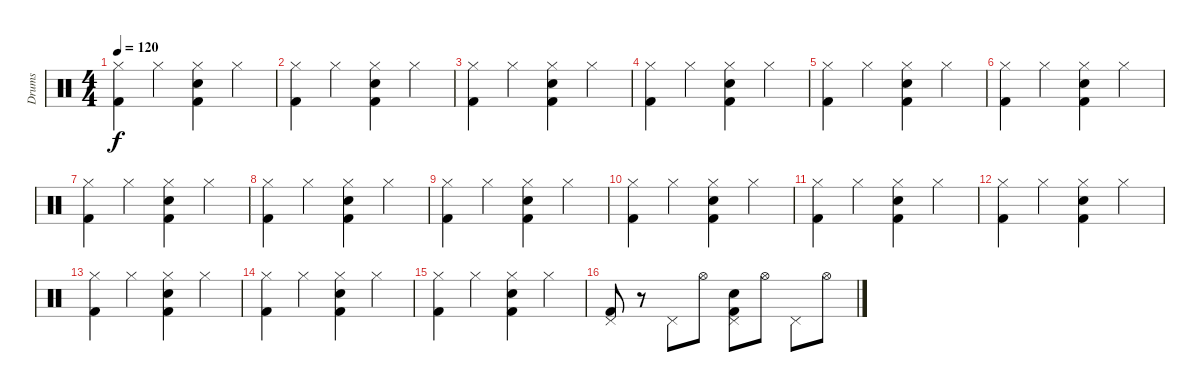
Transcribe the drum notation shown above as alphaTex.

\track ("Drums" "Drums") {instrument percussion}
\staff {score}
\articulation defaults
\ts (4 4)
\tempo 120
\clef neutral
\ks c
("Hi-Hat (closed)" "Kick (hit) 2").4{dy f} "Hi-Hat (closed)".4 ("Hi-Hat (closed)" "Electric Snare (hit)" "Kick (hit) 2").4 "Hi-Hat (closed)".4 |
("Hi-Hat (closed)" "Kick (hit) 2").4 "Hi-Hat (closed)".4 ("Hi-Hat (closed)" "Electric Snare (hit)" "Kick (hit) 2").4 "Hi-Hat (closed)".4 |
("Hi-Hat (closed)" "Kick (hit) 2").4 "Hi-Hat (closed)".4 ("Hi-Hat (closed)" "Electric Snare (hit)" "Kick (hit) 2").4 "Hi-Hat (closed)".4 |
("Hi-Hat (closed)" "Kick (hit) 2").4 "Hi-Hat (closed)".4 ("Hi-Hat (closed)" "Electric Snare (hit)" "Kick (hit) 2").4 "Hi-Hat (closed)".4 |
("Hi-Hat (closed)" "Kick (hit) 2").4 "Hi-Hat (closed)".4 ("Hi-Hat (closed)" "Electric Snare (hit)" "Kick (hit) 2").4 "Hi-Hat (closed)".4 |
("Hi-Hat (closed)" "Kick (hit) 2").4 "Hi-Hat (closed)".4 ("Hi-Hat (closed)" "Electric Snare (hit)" "Kick (hit) 2").4 "Hi-Hat (closed)".4 |
("Hi-Hat (closed)" "Kick (hit) 2").4 "Hi-Hat (closed)".4 ("Hi-Hat (closed)" "Electric Snare (hit)" "Kick (hit) 2").4 "Hi-Hat (closed)".4 |
("Hi-Hat (closed)" "Kick (hit) 2").4 "Hi-Hat (closed)".4 ("Hi-Hat (closed)" "Electric Snare (hit)" "Kick (hit) 2").4 "Hi-Hat (closed)".4 |
("Hi-Hat (closed)" "Kick (hit) 2").4 "Hi-Hat (closed)".4 ("Hi-Hat (closed)" "Electric Snare (hit)" "Kick (hit) 2").4 "Hi-Hat (closed)".4 |
("Hi-Hat (closed)" "Kick (hit) 2").4 "Hi-Hat (closed)".4 ("Hi-Hat (closed)" "Electric Snare (hit)" "Kick (hit) 2").4 "Hi-Hat (closed)".4 |
("Hi-Hat (closed)" "Kick (hit) 2").4 "Hi-Hat (closed)".4 ("Hi-Hat (closed)" "Electric Snare (hit)" "Kick (hit) 2").4 "Hi-Hat (closed)".4 |
("Hi-Hat (closed)" "Kick (hit) 2").4 "Hi-Hat (closed)".4 ("Hi-Hat (closed)" "Electric Snare (hit)" "Kick (hit) 2").4 "Hi-Hat (closed)".4 |
("Hi-Hat (closed)" "Kick (hit) 2").4 "Hi-Hat (closed)".4 ("Hi-Hat (closed)" "Electric Snare (hit)" "Kick (hit) 2").4 "Hi-Hat (closed)".4 |
("Hi-Hat (closed)" "Kick (hit) 2").4 "Hi-Hat (closed)".4 ("Hi-Hat (closed)" "Electric Snare (hit)" "Kick (hit) 2").4 "Hi-Hat (closed)".4 |
("Hi-Hat (closed)" "Kick (hit) 2").4 "Hi-Hat (closed)".4 ("Hi-Hat (closed)" "Electric Snare (hit)" "Kick (hit) 2").4 "Hi-Hat (closed)".4 |
("Pedal Hi-Hat (hit)" "Kick (hit) 2").8 r.8 "Pedal Hi-Hat (hit)".8 "Hi-Hat (open)".8 ("Pedal Hi-Hat (hit)" "Electric Snare (hit)" "Kick (hit) 2").8 "Hi-Hat (open)".8 "Pedal Hi-Hat (hit)".8 "Hi-Hat (open)".8
